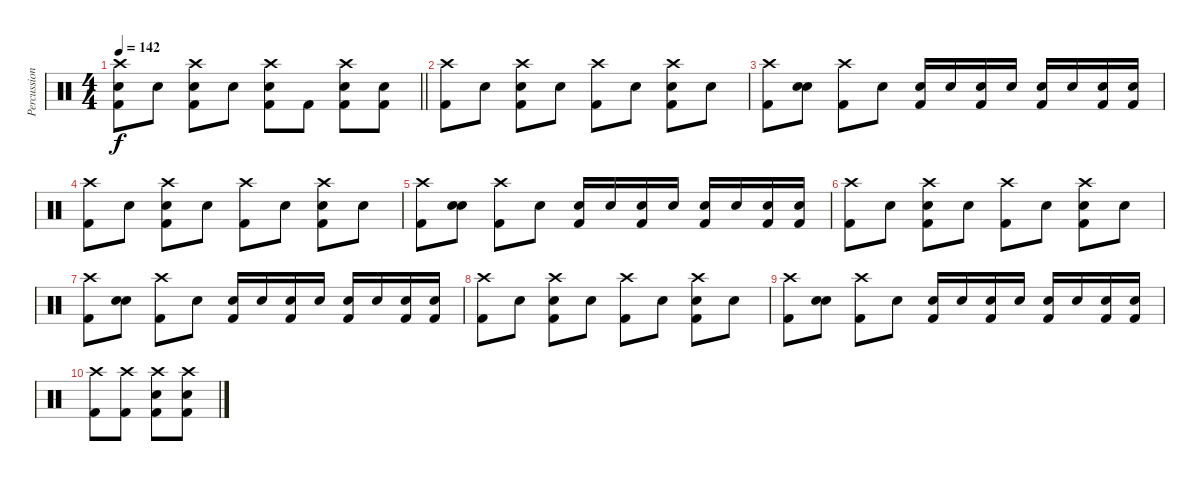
\track ("Percussion" "Percussion") {instrument percussion}
\staff {score}
\articulation defaults
\ts (4 4)
\tempo 142
\clef neutral
\barLineRight lightlight
\ks c
("Crash high (hit)" "Snare (hit) 2" "Kick (hit) 2").8{dy f} "Snare (hit)".8 ("Crash high (hit)" "Snare (hit) 2" "Kick (hit) 2").8 "Snare (hit)".8 ("Crash high (hit)" "Snare (hit) 2" "Kick (hit) 2").8 "Kick (hit) 2".8 ("Crash high (hit)" "Snare (hit) 2" "Kick (hit) 2").8 ("Snare (hit) 2" "Kick (hit) 2").8 |
("Crash high (hit)" "Kick (hit) 2").8 "Snare (hit)".8 ("Crash high (hit)" "Kick (hit) 2" "Snare (hit) 2").8 "Snare (hit)".8 ("Crash high (hit)" "Kick (hit) 2").8 "Snare (hit)".8 ("Crash high (hit)" "Kick (hit) 2" "Snare (hit) 2").8 "Snare (hit)".8 |
("Crash high (hit)" "Kick (hit) 2").8 ("Snare (hit)" "Snare (hit)").8 ("Crash high (hit)" "Kick (hit) 2").8 "Snare (hit)".8 ("Snare (hit) 2" "Kick (hit) 2").16 "Snare (hit) 2".16 ("Snare (hit) 2" "Kick (hit) 2").16 "Snare (hit) 2".16 ("Electric Snare (hit)" "Kick (hit) 2").16 "Electric Snare (hit)".16 ("Electric Snare (hit)" "Kick (hit) 2").16 ("Electric Snare (hit)" "Kick (hit) 2").16 |
("Crash high (hit)" "Kick (hit) 2").8 "Snare (hit)".8 ("Crash high (hit)" "Kick (hit) 2" "Snare (hit) 2").8 "Snare (hit)".8 ("Crash high (hit)" "Kick (hit) 2").8 "Snare (hit)".8 ("Crash high (hit)" "Kick (hit) 2" "Snare (hit) 2").8 "Snare (hit)".8 |
("Crash high (hit)" "Kick (hit) 2").8 ("Snare (hit)" "Snare (hit)").8 ("Crash high (hit)" "Kick (hit) 2").8 "Snare (hit)".8 ("Snare (hit) 2" "Kick (hit) 2").16 "Snare (hit) 2".16 ("Snare (hit) 2" "Kick (hit) 2").16 "Snare (hit) 2".16 ("Electric Snare (hit)" "Kick (hit) 2").16 "Electric Snare (hit)".16 ("Electric Snare (hit)" "Kick (hit) 2").16 ("Electric Snare (hit)" "Kick (hit) 2").16 |
("Crash high (hit)" "Kick (hit) 2").8 "Snare (hit)".8 ("Crash high (hit)" "Kick (hit) 2" "Snare (hit) 2").8 "Snare (hit)".8 ("Crash high (hit)" "Kick (hit) 2").8 "Snare (hit)".8 ("Crash high (hit)" "Kick (hit) 2" "Snare (hit) 2").8 "Snare (hit)".8 |
("Crash high (hit)" "Kick (hit) 2").8 ("Snare (hit)" "Snare (hit)").8 ("Crash high (hit)" "Kick (hit) 2").8 "Snare (hit)".8 ("Snare (hit) 2" "Kick (hit) 2").16 "Snare (hit) 2".16 ("Snare (hit) 2" "Kick (hit) 2").16 "Snare (hit) 2".16 ("Electric Snare (hit)" "Kick (hit) 2").16 "Electric Snare (hit)".16 ("Electric Snare (hit)" "Kick (hit) 2").16 ("Electric Snare (hit)" "Kick (hit) 2").16 |
("Crash high (hit)" "Kick (hit) 2").8 "Snare (hit)".8 ("Crash high (hit)" "Kick (hit) 2" "Snare (hit) 2").8 "Snare (hit)".8 ("Crash high (hit)" "Kick (hit) 2").8 "Snare (hit)".8 ("Crash high (hit)" "Kick (hit) 2" "Snare (hit) 2").8 "Snare (hit)".8 |
("Crash high (hit)" "Kick (hit) 2").8 ("Snare (hit)" "Snare (hit)").8 ("Crash high (hit)" "Kick (hit) 2").8 "Snare (hit)".8 ("Snare (hit) 2" "Kick (hit) 2").16 "Snare (hit) 2".16 ("Snare (hit) 2" "Kick (hit) 2").16 "Snare (hit) 2".16 ("Electric Snare (hit)" "Kick (hit) 2").16 "Electric Snare (hit)".16 ("Electric Snare (hit)" "Kick (hit) 2").16 ("Electric Snare (hit)" "Kick (hit) 2").16 |
("Kick (hit) 2" "Crash high (hit)").8 ("Kick (hit) 2" "Crash high (hit)").8 ("Kick (hit) 2" "Crash high (hit)" "Snare (hit) 2").8 ("Kick (hit) 2" "Crash high (hit)" "Electric Snare (hit)").8
